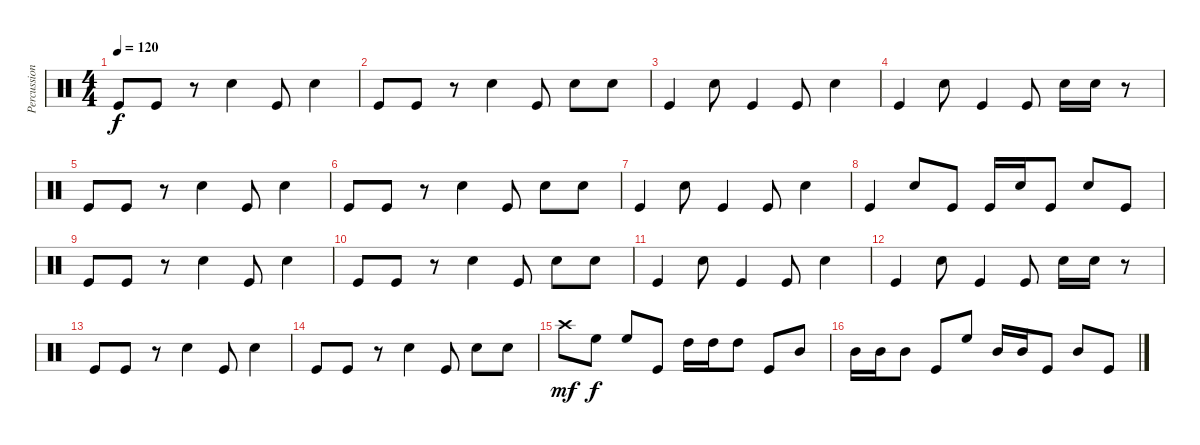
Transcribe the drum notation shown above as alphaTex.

\track ("Percussion" "Percussion") {instrument percussion}
\staff {score}
\articulation defaults
\ts (4 4)
\tempo 120
\clef neutral
\ks c "Kick (hit)".8{dy f} "Kick (hit)".8
r.8 "Electric Snare (hit)".4 "Kick (hit)".8 "Electric Snare (hit)".4 |
"Kick (hit)".8 "Kick (hit)".8 r.8 "Electric Snare (hit)".4 "Kick (hit)".8 "Electric Snare (hit)".8 "Electric Snare (hit)".8 |
"Kick (hit)".4 "Electric Snare (hit)".8 "Kick (hit)".4 "Kick (hit)".8 "Electric Snare (hit)".4 |
"Kick (hit)".4 "Electric Snare (hit)".8 "Kick (hit)".4 "Kick (hit)".8 "Electric Snare (hit)".16 "Electric Snare (hit)".16 r.8 |
"Kick (hit)".8 "Kick (hit)".8 r.8 "Electric Snare (hit)".4 "Kick (hit)".8 "Electric Snare (hit)".4 |
"Kick (hit)".8 "Kick (hit)".8 r.8 "Electric Snare (hit)".4 "Kick (hit)".8 "Electric Snare (hit)".8 "Electric Snare (hit)".8 |
"Kick (hit)".4 "Electric Snare (hit)".8 "Kick (hit)".4 "Kick (hit)".8 "Electric Snare (hit)".4 |
"Kick (hit)".4 "Electric Snare (hit)".8 "Kick (hit)".8 "Kick (hit)".16 "Electric Snare (hit)".16 "Kick (hit)".8 "Electric Snare (hit)".8 "Kick (hit)".8 |
"Kick (hit)".8 "Kick (hit)".8 r.8 "Electric Snare (hit)".4 "Kick (hit)".8 "Electric Snare (hit)".4 |
"Kick (hit)".8 "Kick (hit)".8 r.8 "Electric Snare (hit)".4 "Kick (hit)".8 "Electric Snare (hit)".8 "Electric Snare (hit)".8 |
"Kick (hit)".4 "Electric Snare (hit)".8 "Kick (hit)".4 "Kick (hit)".8 "Electric Snare (hit)".4 |
"Kick (hit)".4 "Electric Snare (hit)".8 "Kick (hit)".4 "Kick (hit)".8 "Electric Snare (hit)".16 "Electric Snare (hit)".16 r.8 |
"Kick (hit)".8 "Kick (hit)".8 r.8 "Electric Snare (hit)".4 "Kick (hit)".8 "Electric Snare (hit)".4 |
"Kick (hit)".8 "Kick (hit)".8 r.8 "Electric Snare (hit)".4 "Kick (hit)".8 "Electric Snare (hit)".8 "Electric Snare (hit)".8 |
"Crash high (hit)".8{dy mf} "High Floor Tom (hit)".8{dy f} "High Floor Tom (hit)".8 "Kick (hit)".8 "High Tom (hit)".16 "High Tom (hit)".16 "High Tom (hit)".8 "Kick (hit)".8 "Mid Tom (hit)".8 |
"Mid Tom (hit)".16 "Mid Tom (hit)".16 "Mid Tom (hit)".8 "Kick (hit)".8 "High Floor Tom (hit)".8 "Mid Tom (hit)".16 "Mid Tom (hit)".16 "Kick (hit)".8 "Mid Tom (hit)".8 "Kick (hit)".8
